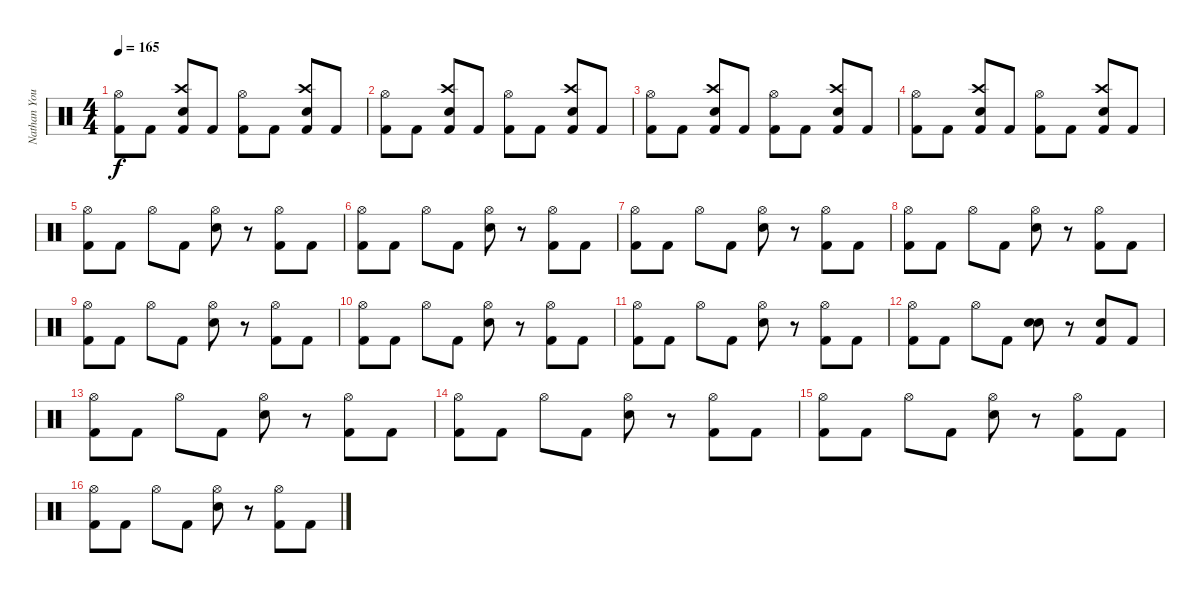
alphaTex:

\track ("Nathan Young" "Nathan You") {instrument percussion}
\staff {score}
\articulation defaults
\ts (4 4)
\tempo 165
\clef neutral
\ks c
("Hi-Hat (open)" "Kick (hit) 2").8{dy f} "Kick (hit) 2".8 ("Crash high (hit)" "Snare (hit) 2" "Kick (hit) 2").8 "Kick (hit) 2".8 ("Hi-Hat (open)" "Kick (hit) 2").8 "Kick (hit) 2".8 ("Crash high (hit)" "Snare (hit) 2" "Kick (hit) 2").8 "Kick (hit) 2".8 |
("Hi-Hat (open)" "Kick (hit) 2").8 "Kick (hit) 2".8 ("Crash high (hit)" "Snare (hit) 2" "Kick (hit) 2").8 "Kick (hit) 2".8 ("Hi-Hat (open)" "Kick (hit) 2").8 "Kick (hit) 2".8 ("Crash high (hit)" "Snare (hit) 2" "Kick (hit) 2").8 "Kick (hit) 2".8 |
("Hi-Hat (open)" "Kick (hit) 2").8 "Kick (hit) 2".8 ("Crash high (hit)" "Snare (hit) 2" "Kick (hit) 2").8 "Kick (hit) 2".8 ("Hi-Hat (open)" "Kick (hit) 2").8 "Kick (hit) 2".8 ("Crash high (hit)" "Snare (hit) 2" "Kick (hit) 2").8 "Kick (hit) 2".8 |
("Hi-Hat (open)" "Kick (hit) 2").8 "Kick (hit) 2".8 ("Crash high (hit)" "Snare (hit) 2" "Kick (hit) 2").8 "Kick (hit) 2".8 ("Hi-Hat (open)" "Kick (hit) 2").8 "Kick (hit) 2".8 ("Crash high (hit)" "Snare (hit) 2" "Kick (hit) 2").8 "Kick (hit) 2".8 |
("Hi-Hat (open)" "Kick (hit) 2").8 "Kick (hit) 2".8 "Hi-Hat (open)".8 "Kick (hit) 2".8 ("Hi-Hat (open)" "Snare (hit) 2").8 r.8 ("Hi-Hat (open)" "Kick (hit) 2").8 "Kick (hit) 2".8 |
("Hi-Hat (open)" "Kick (hit) 2").8 "Kick (hit) 2".8 "Hi-Hat (open)".8 "Kick (hit) 2".8 ("Hi-Hat (open)" "Snare (hit) 2").8 r.8 ("Hi-Hat (open)" "Kick (hit) 2").8 "Kick (hit) 2".8 |
("Hi-Hat (open)" "Kick (hit) 2").8 "Kick (hit) 2".8 "Hi-Hat (open)".8 "Kick (hit) 2".8 ("Hi-Hat (open)" "Snare (hit) 2").8 r.8 ("Hi-Hat (open)" "Kick (hit) 2").8 "Kick (hit) 2".8 |
("Hi-Hat (open)" "Kick (hit) 2").8 "Kick (hit) 2".8 "Hi-Hat (open)".8 "Kick (hit) 2".8 ("Hi-Hat (open)" "Snare (hit) 2").8 r.8 ("Hi-Hat (open)" "Kick (hit) 2").8 "Kick (hit) 2".8 |
("Hi-Hat (open)" "Kick (hit) 2").8 "Kick (hit) 2".8 "Hi-Hat (open)".8 "Kick (hit) 2".8 ("Hi-Hat (open)" "Snare (hit) 2").8 r.8 ("Hi-Hat (open)" "Kick (hit) 2").8 "Kick (hit) 2".8 |
("Hi-Hat (open)" "Kick (hit) 2").8 "Kick (hit) 2".8 "Hi-Hat (open)".8 "Kick (hit) 2".8 ("Hi-Hat (open)" "Snare (hit) 2").8 r.8 ("Hi-Hat (open)" "Kick (hit) 2").8 "Kick (hit) 2".8 |
("Hi-Hat (open)" "Kick (hit) 2").8 "Kick (hit) 2".8 "Hi-Hat (open)".8 "Kick (hit) 2".8 ("Hi-Hat (open)" "Snare (hit) 2").8 r.8 ("Hi-Hat (open)" "Kick (hit) 2").8 "Kick (hit) 2".8 |
("Hi-Hat (open)" "Kick (hit) 2").8 "Kick (hit) 2".8 "Hi-Hat (open)".8 "Kick (hit) 2".8 ("Snare (hit) 2" "Electric Snare (hit)").8 r.8 ("Snare (hit) 2" "Kick (hit) 2").8 "Kick (hit) 2".8 |
("Hi-Hat (open)" "Kick (hit) 2").8 "Kick (hit) 2".8 "Hi-Hat (open)".8 "Kick (hit) 2".8 ("Hi-Hat (open)" "Snare (hit) 2").8 r.8 ("Hi-Hat (open)" "Kick (hit) 2").8 "Kick (hit) 2".8 |
("Hi-Hat (open)" "Kick (hit) 2").8 "Kick (hit) 2".8 "Hi-Hat (open)".8 "Kick (hit) 2".8 ("Hi-Hat (open)" "Snare (hit) 2").8 r.8 ("Hi-Hat (open)" "Kick (hit) 2").8 "Kick (hit) 2".8 |
("Hi-Hat (open)" "Kick (hit) 2").8 "Kick (hit) 2".8 "Hi-Hat (open)".8 "Kick (hit) 2".8 ("Hi-Hat (open)" "Snare (hit) 2").8 r.8 ("Hi-Hat (open)" "Kick (hit) 2").8 "Kick (hit) 2".8 |
("Hi-Hat (open)" "Kick (hit) 2").8 "Kick (hit) 2".8 "Hi-Hat (open)".8 "Kick (hit) 2".8 ("Hi-Hat (open)" "Snare (hit) 2").8 r.8 ("Hi-Hat (open)" "Kick (hit) 2").8 "Kick (hit) 2".8
